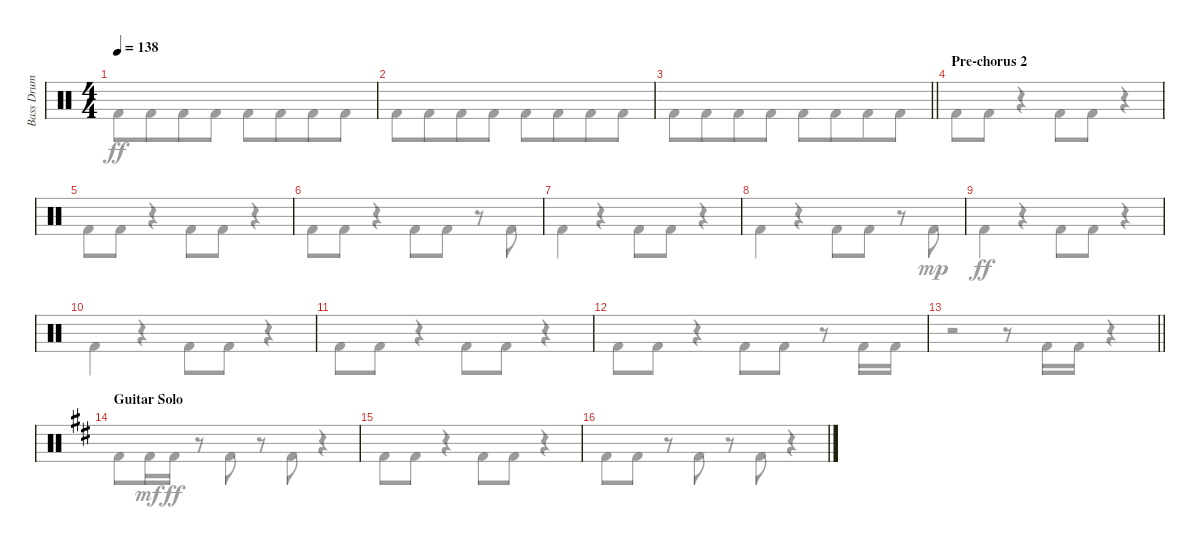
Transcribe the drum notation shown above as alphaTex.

\track ("Bass Drum" "Bass Drum") {instrument percussion}
\staff {score}
\articulation defaults
\voice
\ts (4 4)
\tempo 138
\clef neutral
\ks c
|
|
\barLineRight lightlight
|
\section ("" "Pre-chorus 2")
|
|
|
|
|
|
|
|
|
\barLineRight lightlight
|
\section ("" "Guitar Solo")
\ks d
|
|
\voice
\clef neutral
\ks c "Kick (hit) 2".8{dy ff} "Kick (hit) 2".8{beam merge} "Kick (hit) 2".8 "Kick (hit) 2".8 "Kick (hit) 2".8 "Kick (hit) 2".8{beam merge} "Kick (hit) 2".8 "Kick (hit) 2".8
|
"Kick (hit) 2".8 "Kick (hit) 2".8{beam merge} "Kick (hit) 2".8 "Kick (hit) 2".8 "Kick (hit) 2".8 "Kick (hit) 2".8{beam merge} "Kick (hit) 2".8 "Kick (hit) 2".8 |
\barLineRight lightlight "Kick (hit) 2".8 "Kick (hit) 2".8{beam merge} "Kick (hit) 2".8 "Kick (hit) 2".8 "Kick (hit) 2".8 "Kick (hit) 2".8{beam merge} "Kick (hit) 2".8 "Kick (hit) 2".8
|
"Kick (hit) 2".8 "Kick (hit) 2".8 r.4 "Kick (hit) 2".8 "Kick (hit) 2".8 r.4 |
"Kick (hit) 2".8 "Kick (hit) 2".8 r.4 "Kick (hit) 2".8 "Kick (hit) 2".8 r.4 |
"Kick (hit) 2".8 "Kick (hit) 2".8 r.4 "Kick (hit) 2".8 "Kick (hit) 2".8 r.8 "Kick (hit) 2".8 |
"Kick (hit) 2".4 r.4 "Kick (hit) 2".8 "Kick (hit) 2".8 r.4 |
"Kick (hit) 2".4 r.4 "Kick (hit) 2".8 "Kick (hit) 2".8 r.8 "Kick (hit) 2".8{dy mp} |
"Kick (hit) 2".4{dy ff} r.4 "Kick (hit) 2".8 "Kick (hit) 2".8 r.4 |
"Kick (hit) 2".4 r.4 "Kick (hit) 2".8 "Kick (hit) 2".8 r.4 |
"Kick (hit) 2".8 "Kick (hit) 2".8 r.4 "Kick (hit) 2".8 "Kick (hit) 2".8 r.4 |
"Kick (hit) 2".8 "Kick (hit) 2".8 r.4 "Kick (hit) 2".8 "Kick (hit) 2".8 r.8 "Kick (hit) 2".16 "Kick (hit) 2".16 |
\barLineRight lightlight
r.2 r.8 "Kick (hit) 2".16 "Kick (hit) 2".16 r.4 |
\ks d "Kick (hit) 2".8 "Kick (hit) 2".16{dy mf} "Kick (hit) 2".16{dy ff}
r.8 "Kick (hit) 2".8 r.8 "Kick (hit) 2".8 r.4 |
"Kick (hit) 2".8 "Kick (hit) 2".8 r.4 "Kick (hit) 2".8 "Kick (hit) 2".8 r.4 |
"Kick (hit) 2".8 "Kick (hit) 2".8 r.8 "Kick (hit) 2".8 r.8 "Kick (hit) 2".8 r.4
